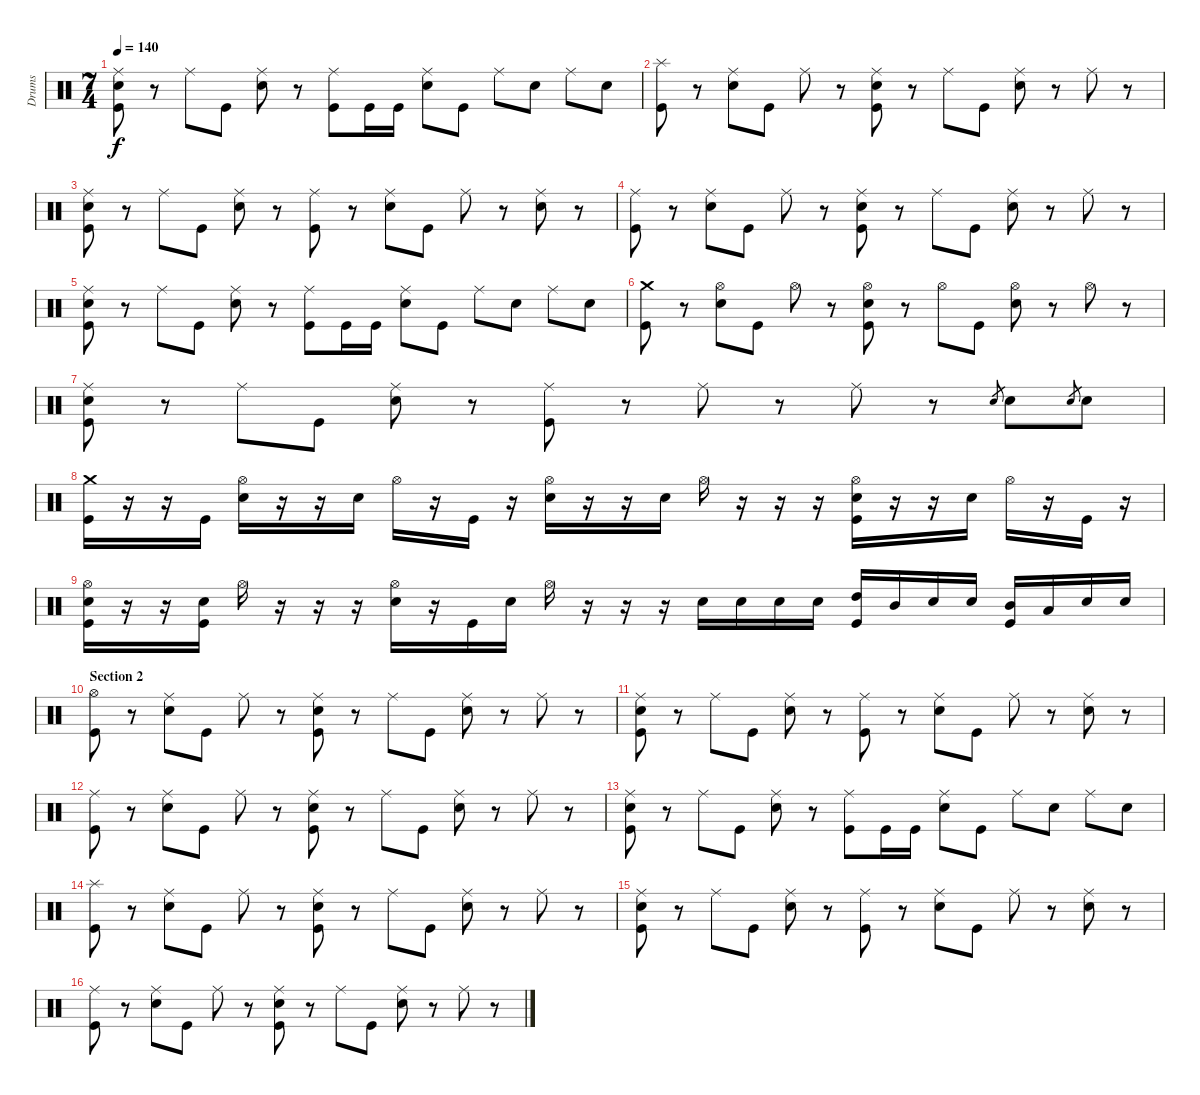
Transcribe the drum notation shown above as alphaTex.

\track ("Drums" "Drums") {instrument percussion}
\staff {score}
\articulation defaults
\ts (7 4)
\tempo 140
\clef neutral
\ks c
("Ride (middle)" "Electric Snare (hit)" "Kick (hit)").8{dy f} r.8 "Ride (middle)".8 "Kick (hit)".8 ("Ride (middle)" "Electric Snare (hit)").8 r.8 ("Ride (middle)" "Kick (hit)").8 "Kick (hit)".16 "Kick (hit)".16 ("Ride (middle)" "Electric Snare (hit)").8 "Kick (hit)".8 "Ride (middle)".8 "Electric Snare (hit)".8 "Ride (middle)".8 "Electric Snare (hit)".8 |
("Splash (hit)" "Kick (hit)").8 r.8 ("Ride (middle)" "Electric Snare (hit)").8 "Kick (hit)".8 "Ride (middle)".8 r.8 ("Ride (middle)" "Electric Snare (hit)" "Kick (hit)").8 r.8 "Ride (middle)".8 "Kick (hit)".8 ("Ride (middle)" "Electric Snare (hit)").8 r.8 "Ride (middle)".8 r.8 |
("Ride (middle)" "Electric Snare (hit)" "Kick (hit)").8 r.8 "Ride (middle)".8 "Kick (hit)".8 ("Ride (middle)" "Electric Snare (hit)").8 r.8 ("Ride (middle)" "Kick (hit)").8 r.8 ("Ride (middle)" "Electric Snare (hit)").8 "Kick (hit)".8 "Ride (middle)".8 r.8 ("Ride (middle)" "Electric Snare (hit)").8 r.8 |
("Ride (middle)" "Kick (hit)").8 r.8 ("Ride (middle)" "Electric Snare (hit)").8 "Kick (hit)".8 "Ride (middle)".8 r.8 ("Ride (middle)" "Electric Snare (hit)" "Kick (hit)").8 r.8 "Ride (middle)".8 "Kick (hit)".8 ("Ride (middle)" "Electric Snare (hit)").8 r.8 "Ride (middle)".8 r.8 |
("Ride (middle)" "Electric Snare (hit)" "Kick (hit)").8 r.8 "Ride (middle)".8 "Kick (hit)".8 ("Ride (middle)" "Electric Snare (hit)").8 r.8 ("Ride (middle)" "Kick (hit)").8 "Kick (hit)".16 "Kick (hit)".16 ("Ride (middle)" "Electric Snare (hit)").8 "Kick (hit)".8 "Ride (middle)".8 "Electric Snare (hit)".8 "Ride (middle)".8 "Electric Snare (hit)".8 |
("Crash medium (hit)" "Kick (hit)").8 r.8 ("Hi-Hat (open)" "Electric Snare (hit)").8 "Kick (hit)".8 "Hi-Hat (open)".8 r.8 ("Hi-Hat (open)" "Electric Snare (hit)" "Kick (hit)").8 r.8 "Hi-Hat (open)".8 "Kick (hit)".8 ("Hi-Hat (open)" "Electric Snare (hit)").8 r.8 "Hi-Hat (open)".8 r.8 |
("Ride (middle)" "Electric Snare (hit)" "Kick (hit)").8 r.8 "Ride (middle)".8 "Kick (hit)".8 ("Ride (middle)" "Electric Snare (hit)").8 r.8 ("Ride (middle)" "Kick (hit)").8 r.8 "Ride (middle)".8 r.8 "Ride (middle)".8 r.8 "Electric Snare (hit)".8{gr} "Electric Snare (hit)".8 "Electric Snare (hit)".8{gr} "Electric Snare (hit)".8 |
("Crash medium (hit)" "Kick (hit)").16 r.16 r.16 "Kick (hit)".16 ("Hi-Hat (open)" "Electric Snare (hit)").16 r.16 r.16 "Electric Snare (hit)".16 "Hi-Hat (open)".16 r.16 "Kick (hit)".16 r.16 ("Hi-Hat (open)" "Electric Snare (hit)").16 r.16 r.16 "Electric Snare (hit)".16 "Hi-Hat (open)".16 r.16 r.16 r.16 ("Hi-Hat (open)" "Electric Snare (hit)" "Kick (hit)").16 r.16 r.16 "Electric Snare (hit)".16 "Hi-Hat (open)".16 r.16 "Kick (hit)".16 r.16 |
("Hi-Hat (open)" "Electric Snare (hit)" "Kick (hit)").16 r.16 r.16 ("Electric Snare (hit)" "Kick (hit)").16 "Hi-Hat (open)".16 r.16 r.16 r.16 ("Hi-Hat (open)" "Electric Snare (hit)").16 r.16 "Kick (hit)".16 "Electric Snare (hit)".16 "Hi-Hat (open)".16 r.16 r.16 r.16 "Electric Snare (hit)".16 "Electric Snare (hit)".16 "Electric Snare (hit)".16 "Electric Snare (hit)".16 ("High Tom (hit)" "Kick (hit)").16 "Mid Tom (hit)".16 "Electric Snare (hit)".16 "Electric Snare (hit)".16 ("Mid Tom (hit)" "Kick (hit)").16 "Low Tom (hit)".16 "Electric Snare (hit)".16 "Electric Snare (hit)".16 |
\section ("" "Section 2")
("Hi-Hat (open)" "Kick (hit)").8 r.8 ("Ride (middle)" "Electric Snare (hit)").8 "Kick (hit)".8 "Ride (middle)".8 r.8 ("Ride (middle)" "Electric Snare (hit)" "Kick (hit)").8 r.8 "Ride (middle)".8 "Kick (hit)".8 ("Ride (middle)" "Electric Snare (hit)").8 r.8 "Ride (middle)".8 r.8 |
("Ride (middle)" "Electric Snare (hit)" "Kick (hit)").8 r.8 "Ride (middle)".8 "Kick (hit)".8 ("Ride (middle)" "Electric Snare (hit)").8 r.8 ("Ride (middle)" "Kick (hit)").8 r.8 ("Ride (middle)" "Electric Snare (hit)").8 "Kick (hit)".8 "Ride (middle)".8 r.8 ("Ride (middle)" "Electric Snare (hit)").8 r.8 |
("Ride (middle)" "Kick (hit)").8 r.8 ("Ride (middle)" "Electric Snare (hit)").8 "Kick (hit)".8 "Ride (middle)".8 r.8 ("Ride (middle)" "Electric Snare (hit)" "Kick (hit)").8 r.8 "Ride (middle)".8 "Kick (hit)".8 ("Ride (middle)" "Electric Snare (hit)").8 r.8 "Ride (middle)".8 r.8 |
("Ride (middle)" "Electric Snare (hit)" "Kick (hit)").8 r.8 "Ride (middle)".8 "Kick (hit)".8 ("Ride (middle)" "Electric Snare (hit)").8 r.8 ("Ride (middle)" "Kick (hit)").8 "Kick (hit)".16 "Kick (hit)".16 ("Ride (middle)" "Electric Snare (hit)").8 "Kick (hit)".8 "Ride (middle)".8 "Electric Snare (hit)".8 "Ride (middle)".8 "Electric Snare (hit)".8 |
("Splash (hit)" "Kick (hit)").8 r.8 ("Ride (middle)" "Electric Snare (hit)").8 "Kick (hit)".8 "Ride (middle)".8 r.8 ("Ride (middle)" "Electric Snare (hit)" "Kick (hit)").8 r.8 "Ride (middle)".8 "Kick (hit)".8 ("Ride (middle)" "Electric Snare (hit)").8 r.8 "Ride (middle)".8 r.8 |
("Ride (middle)" "Electric Snare (hit)" "Kick (hit)").8 r.8 "Ride (middle)".8 "Kick (hit)".8 ("Ride (middle)" "Electric Snare (hit)").8 r.8 ("Ride (middle)" "Kick (hit)").8 r.8 ("Ride (middle)" "Electric Snare (hit)").8 "Kick (hit)".8 "Ride (middle)".8 r.8 ("Ride (middle)" "Electric Snare (hit)").8 r.8 |
("Ride (middle)" "Kick (hit)").8 r.8 ("Ride (middle)" "Electric Snare (hit)").8 "Kick (hit)".8 "Ride (middle)".8 r.8 ("Ride (middle)" "Electric Snare (hit)" "Kick (hit)").8 r.8 "Ride (middle)".8 "Kick (hit)".8 ("Ride (middle)" "Electric Snare (hit)").8 r.8 "Ride (middle)".8 r.8
